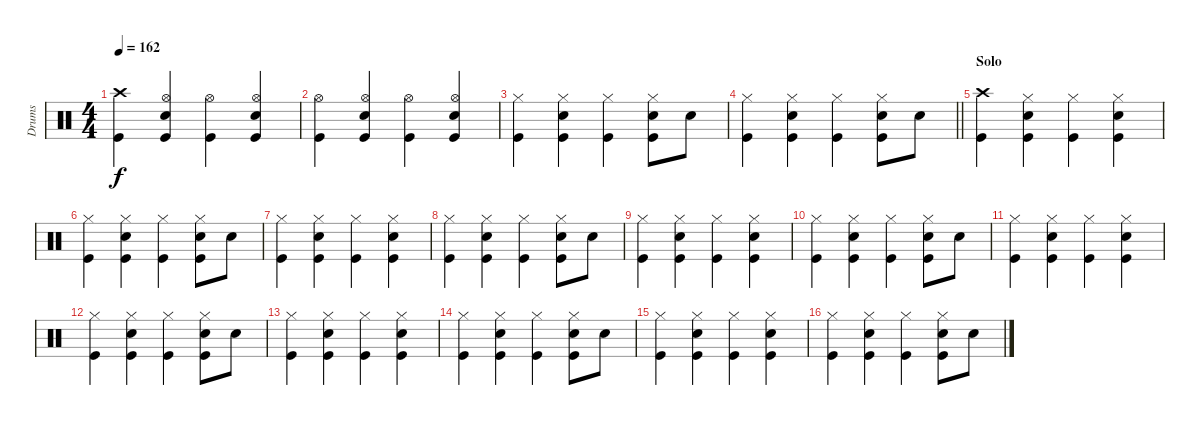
\track ("Drums" "Drums") {instrument percussion}
\staff {score}
\articulation defaults
\ts (4 4)
\tempo 162
\clef neutral
\ks c
("Crash high (hit)" "Kick (hit)").4{dy f} ("Hi-Hat (open)" "Snare (hit) 2" "Kick (hit)").4 ("Hi-Hat (open)" "Kick (hit)").4 ("Hi-Hat (open)" "Snare (hit) 2" "Kick (hit)").4 |
("Hi-Hat (open)" "Kick (hit)").4 ("Hi-Hat (open)" "Snare (hit) 2" "Kick (hit)").4 ("Hi-Hat (open)" "Kick (hit)").4 ("Hi-Hat (open)" "Snare (hit) 2" "Kick (hit)").4 |
("Hi-Hat (closed)" "Kick (hit)").4 ("Hi-Hat (closed)" "Snare (hit) 2" "Kick (hit)").4 ("Hi-Hat (closed)" "Kick (hit)").4 ("Hi-Hat (closed)" "Snare (hit) 2" "Kick (hit)").8 "Snare (hit) 2".8 |
\barLineRight lightlight
("Hi-Hat (closed)" "Kick (hit)").4 ("Hi-Hat (closed)" "Snare (hit) 2" "Kick (hit)").4 ("Hi-Hat (closed)" "Kick (hit)").4 ("Hi-Hat (closed)" "Snare (hit) 2" "Kick (hit)").8 "Snare (hit) 2".8 |
\section ("" "Solo")
("Crash high (hit)" "Kick (hit)").4 ("Hi-Hat (closed)" "Snare (hit) 2" "Kick (hit)").4 ("Hi-Hat (closed)" "Kick (hit)").4 ("Hi-Hat (closed)" "Snare (hit) 2" "Kick (hit)").4 |
("Hi-Hat (closed)" "Kick (hit)").4 ("Hi-Hat (closed)" "Snare (hit) 2" "Kick (hit)").4 ("Hi-Hat (closed)" "Kick (hit)").4 ("Hi-Hat (closed)" "Snare (hit) 2" "Kick (hit)").8 "Snare (hit) 2".8 |
("Hi-Hat (closed)" "Kick (hit)").4 ("Hi-Hat (closed)" "Snare (hit) 2" "Kick (hit)").4 ("Hi-Hat (closed)" "Kick (hit)").4 ("Hi-Hat (closed)" "Snare (hit) 2" "Kick (hit)").4 |
("Hi-Hat (closed)" "Kick (hit)").4 ("Hi-Hat (closed)" "Snare (hit) 2" "Kick (hit)").4 ("Hi-Hat (closed)" "Kick (hit)").4 ("Hi-Hat (closed)" "Snare (hit) 2" "Kick (hit)").8 "Snare (hit) 2".8 |
("Hi-Hat (closed)" "Kick (hit)").4 ("Hi-Hat (closed)" "Snare (hit) 2" "Kick (hit)").4 ("Hi-Hat (closed)" "Kick (hit)").4 ("Hi-Hat (closed)" "Snare (hit) 2" "Kick (hit)").4 |
("Hi-Hat (closed)" "Kick (hit)").4 ("Hi-Hat (closed)" "Snare (hit) 2" "Kick (hit)").4 ("Hi-Hat (closed)" "Kick (hit)").4 ("Hi-Hat (closed)" "Snare (hit) 2" "Kick (hit)").8 "Snare (hit) 2".8 |
("Hi-Hat (closed)" "Kick (hit)").4 ("Hi-Hat (closed)" "Snare (hit) 2" "Kick (hit)").4 ("Hi-Hat (closed)" "Kick (hit)").4 ("Hi-Hat (closed)" "Snare (hit) 2" "Kick (hit)").4 |
("Hi-Hat (closed)" "Kick (hit)").4 ("Hi-Hat (closed)" "Snare (hit) 2" "Kick (hit)").4 ("Hi-Hat (closed)" "Kick (hit)").4 ("Hi-Hat (closed)" "Snare (hit) 2" "Kick (hit)").8 "Snare (hit) 2".8 |
("Hi-Hat (closed)" "Kick (hit)").4 ("Hi-Hat (closed)" "Snare (hit) 2" "Kick (hit)").4 ("Hi-Hat (closed)" "Kick (hit)").4 ("Hi-Hat (closed)" "Snare (hit) 2" "Kick (hit)").4 |
("Hi-Hat (closed)" "Kick (hit)").4 ("Hi-Hat (closed)" "Snare (hit) 2" "Kick (hit)").4 ("Hi-Hat (closed)" "Kick (hit)").4 ("Hi-Hat (closed)" "Snare (hit) 2" "Kick (hit)").8 "Snare (hit) 2".8 |
("Hi-Hat (closed)" "Kick (hit)").4 ("Hi-Hat (closed)" "Snare (hit) 2" "Kick (hit)").4 ("Hi-Hat (closed)" "Kick (hit)").4 ("Hi-Hat (closed)" "Snare (hit) 2" "Kick (hit)").4 |
("Hi-Hat (closed)" "Kick (hit)").4 ("Hi-Hat (closed)" "Snare (hit) 2" "Kick (hit)").4 ("Hi-Hat (closed)" "Kick (hit)").4 ("Hi-Hat (closed)" "Snare (hit) 2" "Kick (hit)").8 "Snare (hit) 2".8
